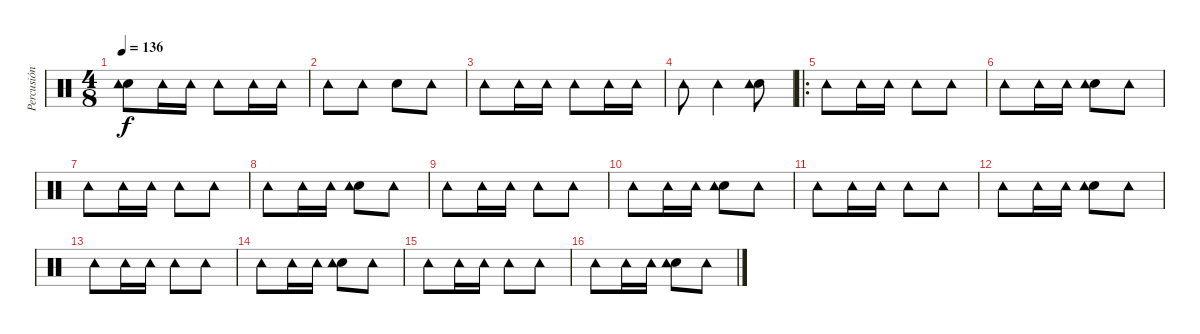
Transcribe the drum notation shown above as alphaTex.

\track ("Percusión" "Percusión") {instrument percussion}
\staff {score}
\articulation defaults
\ts (4 8)
\tempo 136
\clef neutral
\ks c
("Electric Snare (hit)" "Tambourine (hit)").8{dy f} "Tambourine (hit)".16 "Tambourine (hit)".16 "Tambourine (hit)".8 "Tambourine (hit)".16 "Tambourine (hit)".16 |
"Tambourine (hit)".8 "Tambourine (hit)".8 "Electric Snare (hit)".8 "Tambourine (hit)".8 |
"Tambourine (hit)".8 "Tambourine (hit)".16 "Tambourine (hit)".16 "Tambourine (hit)".8 "Tambourine (hit)".16 "Tambourine (hit)".16 |
"Tambourine (hit)".8 "Tambourine (hit)".4 ("Electric Snare (hit)" "Tambourine (hit)").8 |
\ro "Tambourine (hit)".8 "Tambourine (hit)".16 "Tambourine (hit)".16 "Tambourine (hit)".8 "Tambourine (hit)".8
|
"Tambourine (hit)".8 "Tambourine (hit)".16 "Tambourine (hit)".16 ("Electric Snare (hit)" "Tambourine (hit)").8 "Tambourine (hit)".8 |
"Tambourine (hit)".8 "Tambourine (hit)".16 "Tambourine (hit)".16 "Tambourine (hit)".8 "Tambourine (hit)".8 |
"Tambourine (hit)".8 "Tambourine (hit)".16 "Tambourine (hit)".16 ("Electric Snare (hit)" "Tambourine (hit)").8 "Tambourine (hit)".8 |
"Tambourine (hit)".8 "Tambourine (hit)".16 "Tambourine (hit)".16 "Tambourine (hit)".8 "Tambourine (hit)".8 |
"Tambourine (hit)".8 "Tambourine (hit)".16 "Tambourine (hit)".16 ("Electric Snare (hit)" "Tambourine (hit)").8 "Tambourine (hit)".8 |
"Tambourine (hit)".8 "Tambourine (hit)".16 "Tambourine (hit)".16 "Tambourine (hit)".8 "Tambourine (hit)".8 |
"Tambourine (hit)".8 "Tambourine (hit)".16 "Tambourine (hit)".16 ("Electric Snare (hit)" "Tambourine (hit)").8 "Tambourine (hit)".8 |
"Tambourine (hit)".8 "Tambourine (hit)".16 "Tambourine (hit)".16 "Tambourine (hit)".8 "Tambourine (hit)".8 |
"Tambourine (hit)".8 "Tambourine (hit)".16 "Tambourine (hit)".16 ("Electric Snare (hit)" "Tambourine (hit)").8 "Tambourine (hit)".8 |
"Tambourine (hit)".8 "Tambourine (hit)".16 "Tambourine (hit)".16 "Tambourine (hit)".8 "Tambourine (hit)".8 |
"Tambourine (hit)".8 "Tambourine (hit)".16 "Tambourine (hit)".16 ("Electric Snare (hit)" "Tambourine (hit)").8 "Tambourine (hit)".8
